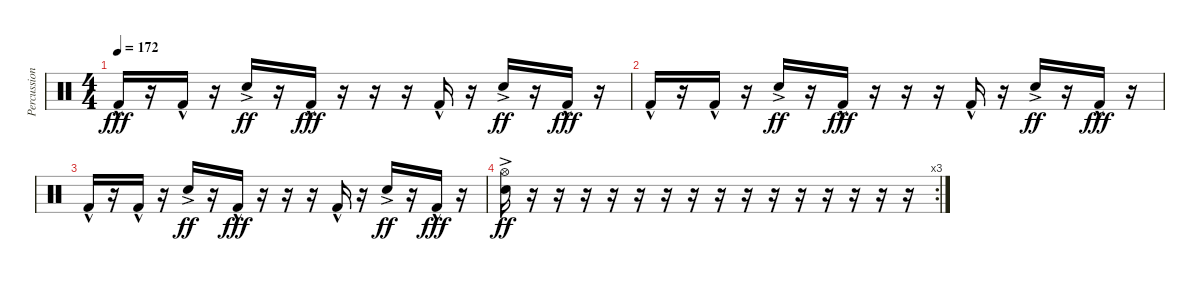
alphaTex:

\track ("Percussion" "Percussion") {instrument percussion bank 255}
\staff {score}
\articulation defaults
\ts (4 4)
\tempo 172
\clef neutral
\ks c "Kick (hit) 2"{hac}.16{dy fff}
r.16 "Kick (hit) 2"{hac}.16 r.16 "Snare (hit) 2"{ac}.16{dy ff} r.16 "Kick (hit) 2"{hac}.16{dy fff} r.16 r.16 r.16 "Kick (hit) 2"{hac}.16 r.16 "Snare (hit) 2"{ac}.16{dy ff} r.16 "Kick (hit) 2"{hac}.16{dy fff} r.16 |
"Kick (hit) 2"{hac}.16 r.16 "Kick (hit) 2"{hac}.16 r.16 "Snare (hit) 2"{ac}.16{dy ff} r.16 "Kick (hit) 2"{hac}.16{dy fff} r.16 r.16 r.16 "Kick (hit) 2"{hac}.16 r.16 "Snare (hit) 2"{ac}.16{dy ff} r.16 "Kick (hit) 2"{hac}.16{dy fff} r.16 |
"Kick (hit) 2"{hac}.16 r.16 "Kick (hit) 2"{hac}.16 r.16 "Snare (hit) 2"{ac}.16{dy ff} r.16 "Kick (hit) 2"{hac}.16{dy fff} r.16 r.16 r.16 "Kick (hit) 2"{hac}.16 r.16 "Snare (hit) 2"{ac}.16{dy ff} r.16 "Kick (hit) 2"{hac}.16{dy fff} r.16 |
\rc 3
("Hi-Hat (open)"{ac} "Snare (hit) 2"{ac}).16{dy ff} r.16 r.16 r.16 r.16 r.16 r.16 r.16 r.16 r.16 r.16 r.16 r.16 r.16 r.16 r.16
